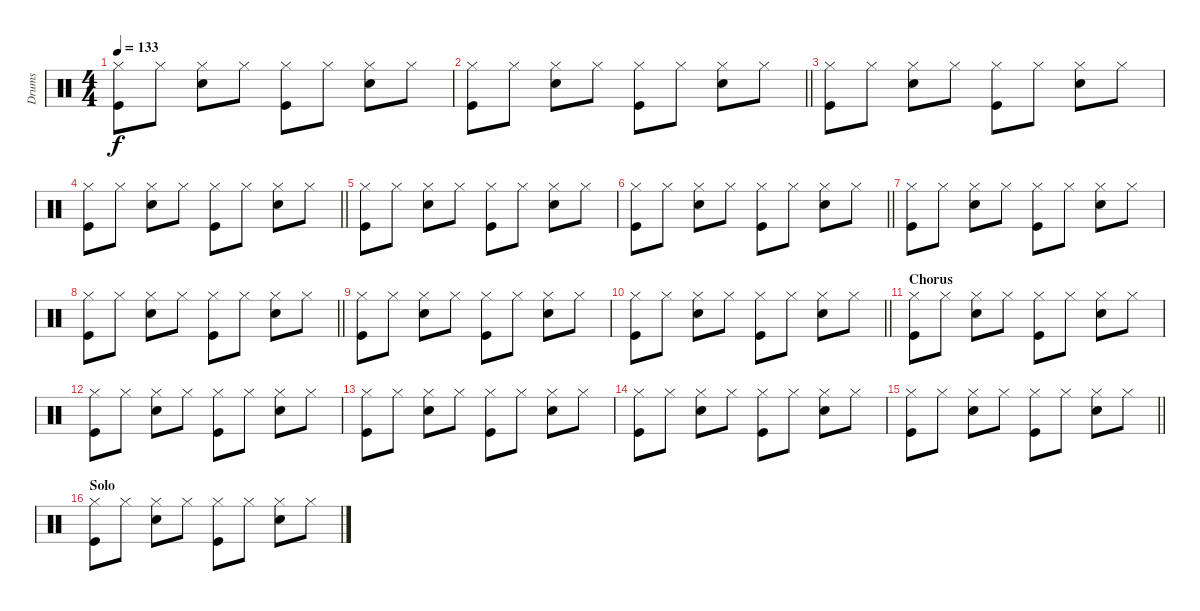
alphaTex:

\track ("Drums" "Drums") {instrument percussion}
\staff {score}
\articulation defaults
\ts (4 4)
\tempo 133
\clef neutral
\ks c
("Hi-Hat (closed)" "Kick (hit)").8{dy f} "Hi-Hat (closed)".8 ("Hi-Hat (closed)" "Snare (hit) 2").8 "Hi-Hat (closed)".8 ("Hi-Hat (closed)" "Kick (hit)").8 "Hi-Hat (closed)".8 ("Hi-Hat (closed)" "Snare (hit) 2").8 "Hi-Hat (closed)".8 |
\barLineRight lightlight
("Hi-Hat (closed)" "Kick (hit)").8 "Hi-Hat (closed)".8 ("Hi-Hat (closed)" "Snare (hit) 2").8 "Hi-Hat (closed)".8 ("Hi-Hat (closed)" "Kick (hit)").8 "Hi-Hat (closed)".8 ("Hi-Hat (closed)" "Snare (hit) 2").8 "Hi-Hat (closed)".8 |
("Hi-Hat (closed)" "Kick (hit)").8 "Hi-Hat (closed)".8 ("Hi-Hat (closed)" "Snare (hit) 2").8 "Hi-Hat (closed)".8 ("Hi-Hat (closed)" "Kick (hit)").8 "Hi-Hat (closed)".8 ("Hi-Hat (closed)" "Snare (hit) 2").8 "Hi-Hat (closed)".8 |
\barLineRight lightlight
("Hi-Hat (closed)" "Kick (hit)").8 "Hi-Hat (closed)".8 ("Hi-Hat (closed)" "Snare (hit) 2").8 "Hi-Hat (closed)".8 ("Hi-Hat (closed)" "Kick (hit)").8 "Hi-Hat (closed)".8 ("Hi-Hat (closed)" "Snare (hit) 2").8 "Hi-Hat (closed)".8 |
("Hi-Hat (closed)" "Kick (hit)").8 "Hi-Hat (closed)".8 ("Hi-Hat (closed)" "Snare (hit) 2").8 "Hi-Hat (closed)".8 ("Hi-Hat (closed)" "Kick (hit)").8 "Hi-Hat (closed)".8 ("Hi-Hat (closed)" "Snare (hit) 2").8 "Hi-Hat (closed)".8 |
\barLineRight lightlight
("Hi-Hat (closed)" "Kick (hit)").8 "Hi-Hat (closed)".8 ("Hi-Hat (closed)" "Snare (hit) 2").8 "Hi-Hat (closed)".8 ("Hi-Hat (closed)" "Kick (hit)").8 "Hi-Hat (closed)".8 ("Hi-Hat (closed)" "Snare (hit) 2").8 "Hi-Hat (closed)".8 |
("Hi-Hat (closed)" "Kick (hit)").8 "Hi-Hat (closed)".8 ("Hi-Hat (closed)" "Snare (hit) 2").8 "Hi-Hat (closed)".8 ("Hi-Hat (closed)" "Kick (hit)").8 "Hi-Hat (closed)".8 ("Hi-Hat (closed)" "Snare (hit) 2").8 "Hi-Hat (closed)".8 |
\barLineRight lightlight
("Hi-Hat (closed)" "Kick (hit)").8 "Hi-Hat (closed)".8 ("Hi-Hat (closed)" "Snare (hit) 2").8 "Hi-Hat (closed)".8 ("Hi-Hat (closed)" "Kick (hit)").8 "Hi-Hat (closed)".8 ("Hi-Hat (closed)" "Snare (hit) 2").8 "Hi-Hat (closed)".8 |
("Hi-Hat (closed)" "Kick (hit)").8 "Hi-Hat (closed)".8 ("Hi-Hat (closed)" "Snare (hit) 2").8 "Hi-Hat (closed)".8 ("Hi-Hat (closed)" "Kick (hit)").8 "Hi-Hat (closed)".8 ("Hi-Hat (closed)" "Snare (hit) 2").8 "Hi-Hat (closed)".8 |
\barLineRight lightlight
("Hi-Hat (closed)" "Kick (hit)").8 "Hi-Hat (closed)".8 ("Hi-Hat (closed)" "Snare (hit) 2").8 "Hi-Hat (closed)".8 ("Hi-Hat (closed)" "Kick (hit)").8 "Hi-Hat (closed)".8 ("Hi-Hat (closed)" "Snare (hit) 2").8 "Hi-Hat (closed)".8 |
\section ("" "Chorus")
("Hi-Hat (closed)" "Kick (hit)").8 "Hi-Hat (closed)".8 ("Hi-Hat (closed)" "Snare (hit) 2").8 "Hi-Hat (closed)".8 ("Hi-Hat (closed)" "Kick (hit)").8 "Hi-Hat (closed)".8 ("Hi-Hat (closed)" "Snare (hit) 2").8 "Hi-Hat (closed)".8 |
("Hi-Hat (closed)" "Kick (hit)").8 "Hi-Hat (closed)".8 ("Hi-Hat (closed)" "Snare (hit) 2").8 "Hi-Hat (closed)".8 ("Hi-Hat (closed)" "Kick (hit)").8 "Hi-Hat (closed)".8 ("Hi-Hat (closed)" "Snare (hit) 2").8 "Hi-Hat (closed)".8 |
("Hi-Hat (closed)" "Kick (hit)").8 "Hi-Hat (closed)".8 ("Hi-Hat (closed)" "Snare (hit) 2").8 "Hi-Hat (closed)".8 ("Hi-Hat (closed)" "Kick (hit)").8 "Hi-Hat (closed)".8 ("Hi-Hat (closed)" "Snare (hit) 2").8 "Hi-Hat (closed)".8 |
("Hi-Hat (closed)" "Kick (hit)").8 "Hi-Hat (closed)".8 ("Hi-Hat (closed)" "Snare (hit) 2").8 "Hi-Hat (closed)".8 ("Hi-Hat (closed)" "Kick (hit)").8 "Hi-Hat (closed)".8 ("Hi-Hat (closed)" "Snare (hit) 2").8 "Hi-Hat (closed)".8 |
\barLineRight lightlight
("Hi-Hat (closed)" "Kick (hit)").8 "Hi-Hat (closed)".8 ("Hi-Hat (closed)" "Snare (hit) 2").8 "Hi-Hat (closed)".8 ("Hi-Hat (closed)" "Kick (hit)").8 "Hi-Hat (closed)".8 ("Hi-Hat (closed)" "Snare (hit) 2").8 "Hi-Hat (closed)".8 |
\section ("" "Solo")
("Hi-Hat (closed)" "Kick (hit)").8 "Hi-Hat (closed)".8 ("Hi-Hat (closed)" "Snare (hit) 2").8 "Hi-Hat (closed)".8 ("Hi-Hat (closed)" "Kick (hit)").8 "Hi-Hat (closed)".8 ("Hi-Hat (closed)" "Snare (hit) 2").8 "Hi-Hat (closed)".8
